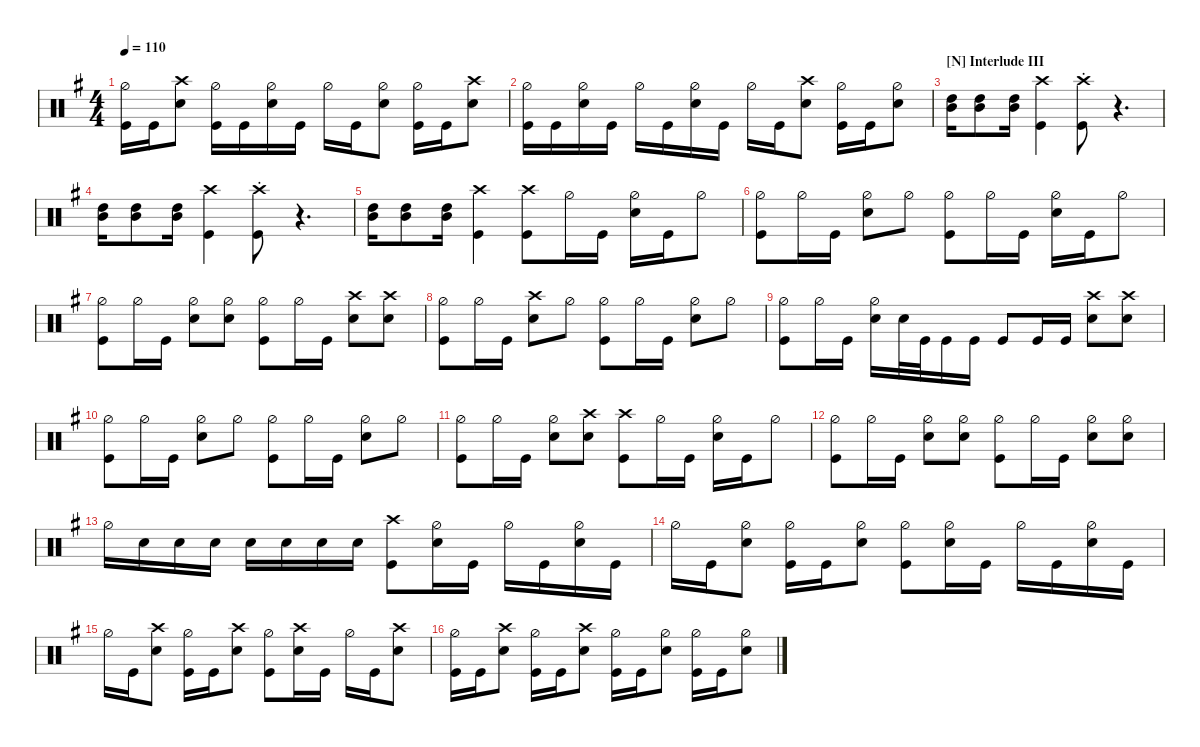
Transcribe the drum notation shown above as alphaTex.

\defaultSystemsLayout 4
\hideDynamics
\bracketExtendMode nobrackets
\track ("Drums" " ") {instrument percussion}
\staff
\articulation defaults
\ts (4 4)
\tempo 110
\clef neutral
\ks eminor
("Kick (hit)"{acc forcenatural} "Hi-Hat (half)"{acc forcenatural}).16{dy f} "Kick (hit)"{acc forcenatural}.16 ("Snare (hit) 2"{acc forcenatural} "Crash high (hit)"{acc forcenatural}).8 ("Hi-Hat (half)"{acc forcenatural} "Kick (hit)"{acc forcenatural}).16 "Kick (hit)"{acc forcenatural}.16 ("Hi-Hat (half)"{acc forcenatural} "Snare (hit) 2"{acc forcenatural}).16 "Kick (hit)"{acc forcenatural}.16 "Hi-Hat (half)"{acc forcenatural}.16 "Kick (hit)"{acc forcenatural}.16 ("Hi-Hat (half)"{acc forcenatural} "Snare (hit) 2"{acc forcenatural}).8 ("Kick (hit)"{acc forcenatural} "Hi-Hat (half)"{acc forcenatural}).16 "Kick (hit)"{acc forcenatural}.16 ("Snare (hit) 2"{acc forcenatural} "Crash high (hit)"{acc forcenatural}).8 |
("Hi-Hat (half)"{acc forcenatural} "Kick (hit)"{acc forcenatural}).16 "Kick (hit)"{acc forcenatural}.16 ("Hi-Hat (half)"{acc forcenatural} "Snare (hit) 2"{acc forcenatural}).16 "Kick (hit)"{acc forcenatural}.16 "Hi-Hat (half)"{acc forcenatural}.16 "Kick (hit)"{acc forcenatural}.16 ("Hi-Hat (half)"{acc forcenatural} "Snare (hit) 2"{acc forcenatural}).16 "Kick (hit)"{acc forcenatural}.16 "Hi-Hat (half)"{acc forcenatural}.16 "Kick (hit)"{acc forcenatural}.16 ("Snare (hit) 2"{acc forcenatural} "Crash high (hit)"{acc forcenatural}).8 ("Kick (hit)"{acc forcenatural} "Hi-Hat (half)"{acc forcenatural}).16 "Kick (hit)"{acc forcenatural}.16 ("Hi-Hat (half)"{acc forcenatural} "Snare (hit) 2"{acc forcenatural}).8 |
\section ("N" "Interlude III")
("High Tom (hit)"{acc forcenatural} "Mid Tom (hit)"{acc forcenatural}).16{dy ff} ("High Tom (hit)"{acc forcenatural} "Mid Tom (hit)"{acc forcenatural}).8 ("High Tom (hit)"{acc forcenatural} "Mid Tom (hit)"{acc forcenatural}).16 ("Kick (hit)"{acc forcenatural} "Crash high (hit)"{acc forcenatural}).4{dy f} ("Kick (hit)"{acc forcenatural} "Crash high (hit)"{st acc forcenatural}).8 r.4{d} |
("High Tom (hit)"{acc forcenatural} "Mid Tom (hit)"{acc forcenatural}).16{dy ff} ("High Tom (hit)"{acc forcenatural} "Mid Tom (hit)"{acc forcenatural}).8 ("High Tom (hit)"{acc forcenatural} "Mid Tom (hit)"{acc forcenatural}).16 ("Kick (hit)"{acc forcenatural} "Crash high (hit)"{acc forcenatural}).4{dy f} ("Kick (hit)"{acc forcenatural} "Crash high (hit)"{st acc forcenatural}).8 r.4{d} |
("High Tom (hit)"{acc forcenatural} "Mid Tom (hit)"{acc forcenatural}).16{dy ff} ("High Tom (hit)"{acc forcenatural} "Mid Tom (hit)"{acc forcenatural}).8 ("High Tom (hit)"{acc forcenatural} "Mid Tom (hit)"{acc forcenatural}).16 ("Kick (hit)"{acc forcenatural} "Crash high (hit)"{acc forcenatural}).4{dy f} ("Kick (hit)"{acc forcenatural} "Crash high (hit)"{acc forcenatural}).8 "Hi-Hat (half)"{acc forcenatural}.16 "Kick (hit)"{acc forcenatural}.16 ("Hi-Hat (half)"{acc forcenatural} "Snare (hit) 2"{acc forcenatural}).16 "Kick (hit)"{acc forcenatural}.16 "Hi-Hat (half)"{acc forcenatural}.8 |
("Hi-Hat (half)"{acc forcenatural} "Kick (hit)"{acc forcenatural}).8 "Hi-Hat (half)"{acc forcenatural}.16 "Kick (hit)"{acc forcenatural}.16 ("Hi-Hat (half)"{acc forcenatural} "Snare (hit) 2"{acc forcenatural}).8 "Hi-Hat (half)"{acc forcenatural}.8 ("Hi-Hat (half)"{acc forcenatural} "Kick (hit)"{acc forcenatural}).8 "Hi-Hat (half)"{acc forcenatural}.16 "Kick (hit)"{acc forcenatural}.16 ("Hi-Hat (half)"{acc forcenatural} "Snare (hit) 2"{acc forcenatural}).16 "Kick (hit)"{acc forcenatural}.16 "Hi-Hat (half)"{acc forcenatural}.8 |
("Hi-Hat (half)"{acc forcenatural} "Kick (hit)"{acc forcenatural}).8 "Hi-Hat (half)"{acc forcenatural}.16 "Kick (hit)"{acc forcenatural}.16 ("Hi-Hat (half)"{acc forcenatural} "Snare (hit) 2"{acc forcenatural}).8 ("Hi-Hat (half)"{acc forcenatural} "Snare (hit) 2"{acc forcenatural}).8 ("Hi-Hat (half)"{acc forcenatural} "Kick (hit)"{acc forcenatural}).8 "Hi-Hat (half)"{acc forcenatural}.16 "Kick (hit)"{acc forcenatural}.16 ("Snare (hit) 2"{acc forcenatural} "Crash high (hit)"{acc forcenatural}).8 ("Snare (hit) 2"{acc forcenatural} "Crash high (hit)"{acc forcenatural}).8 |
("Hi-Hat (half)"{acc forcenatural} "Kick (hit)"{acc forcenatural}).8 "Hi-Hat (half)"{acc forcenatural}.16 "Kick (hit)"{acc forcenatural}.16 ("Snare (hit) 2"{acc forcenatural} "Crash high (hit)"{acc forcenatural}).8 "Hi-Hat (half)"{acc forcenatural}.8 ("Hi-Hat (half)"{acc forcenatural} "Kick (hit)"{acc forcenatural}).8 "Hi-Hat (half)"{acc forcenatural}.16 "Kick (hit)"{acc forcenatural}.16 ("Snare (hit) 2"{acc forcenatural} "Hi-Hat (half)"{acc forcenatural}).8 "Hi-Hat (half)"{acc forcenatural}.8 |
("Hi-Hat (half)"{acc forcenatural} "Kick (hit)"{acc forcenatural}).8 "Hi-Hat (half)"{acc forcenatural}.16 "Kick (hit)"{acc forcenatural}.16 ("Snare (hit) 2"{acc forcenatural} "Hi-Hat (half)"{acc forcenatural}).16 "Snare (hit) 2"{acc forcenatural}.32 "Kick (hit)"{acc forcenatural}.32 "Kick (hit)"{acc forcenatural}.16 "Kick (hit)"{acc forcenatural}.16 "Kick (hit)"{acc forcenatural}.8 "Kick (hit)"{acc forcenatural}.16 "Kick (hit)"{acc forcenatural}.16 ("Snare (hit) 2"{acc forcenatural} "Crash high (hit)"{acc forcenatural}).8 ("Snare (hit) 2"{acc forcenatural} "Crash high (hit)"{acc forcenatural}).8 |
("Hi-Hat (half)"{acc forcenatural} "Kick (hit)"{acc forcenatural}).8 "Hi-Hat (half)"{acc forcenatural}.16 "Kick (hit)"{acc forcenatural}.16 ("Snare (hit) 2"{acc forcenatural} "Hi-Hat (half)"{acc forcenatural}).8 "Hi-Hat (half)"{acc forcenatural}.8 ("Hi-Hat (half)"{acc forcenatural} "Kick (hit)"{acc forcenatural}).8 "Hi-Hat (half)"{acc forcenatural}.16 "Kick (hit)"{acc forcenatural}.16 ("Snare (hit) 2"{acc forcenatural} "Hi-Hat (half)"{acc forcenatural}).8 "Hi-Hat (half)"{acc forcenatural}.8 |
("Hi-Hat (half)"{acc forcenatural} "Kick (hit)"{acc forcenatural}).8 "Hi-Hat (half)"{acc forcenatural}.16 "Kick (hit)"{acc forcenatural}.16 ("Snare (hit) 2"{acc forcenatural} "Hi-Hat (half)"{acc forcenatural}).8 ("Snare (hit) 2"{acc forcenatural} "Crash high (hit)"{acc forcenatural}).8 ("Kick (hit)"{acc forcenatural} "Crash high (hit)"{acc forcenatural}).8 "Hi-Hat (half)"{acc forcenatural}.16 "Kick (hit)"{acc forcenatural}.16 ("Snare (hit) 2"{acc forcenatural} "Hi-Hat (half)"{acc forcenatural}).16 "Kick (hit)"{acc forcenatural}.16 "Hi-Hat (half)"{acc forcenatural}.8 |
("Hi-Hat (half)"{acc forcenatural} "Kick (hit)"{acc forcenatural}).8 "Hi-Hat (half)"{acc forcenatural}.16 "Kick (hit)"{acc forcenatural}.16 ("Snare (hit) 2"{acc forcenatural} "Hi-Hat (half)"{acc forcenatural}).8 ("Snare (hit) 2"{acc forcenatural} "Hi-Hat (half)"{acc forcenatural}).8 ("Hi-Hat (half)"{acc forcenatural} "Kick (hit)"{acc forcenatural}).8 "Hi-Hat (half)"{acc forcenatural}.16 "Kick (hit)"{acc forcenatural}.16 ("Snare (hit) 2"{acc forcenatural} "Hi-Hat (half)"{acc forcenatural}).8 ("Snare (hit) 2"{acc forcenatural} "Hi-Hat (half)"{acc forcenatural}).8 |
"Hi-Hat (half)"{acc forcenatural}.16 "Snare (hit) 2"{acc forcenatural}.16 "Snare (hit) 2"{acc forcenatural}.16 "Snare (hit) 2"{acc forcenatural}.16 "Snare (hit) 2"{acc forcenatural}.16 "Snare (hit) 2"{acc forcenatural}.16 "Snare (hit) 2"{acc forcenatural}.16 "Snare (hit) 2"{acc forcenatural}.16 ("Kick (hit)"{acc forcenatural} "Crash high (hit)"{acc forcenatural}).8 ("Hi-Hat (half)"{acc forcenatural} "Snare (hit) 2"{acc forcenatural}).16 "Kick (hit)"{acc forcenatural}.16 "Hi-Hat (half)"{acc forcenatural}.16 "Kick (hit)"{acc forcenatural}.16 ("Hi-Hat (half)"{acc forcenatural} "Snare (hit) 2"{acc forcenatural}).16 "Kick (hit)"{acc forcenatural}.16 |
"Hi-Hat (half)"{acc forcenatural}.16 "Kick (hit)"{acc forcenatural}.16 ("Hi-Hat (half)"{acc forcenatural} "Snare (hit) 2"{acc forcenatural}).8 ("Hi-Hat (half)"{acc forcenatural} "Kick (hit)"{acc forcenatural}).16 "Kick (hit)"{acc forcenatural}.16 ("Hi-Hat (half)"{acc forcenatural} "Snare (hit) 2"{acc forcenatural}).8 ("Hi-Hat (half)"{acc forcenatural} "Kick (hit)"{acc forcenatural}).8 ("Hi-Hat (half)"{acc forcenatural} "Snare (hit) 2"{acc forcenatural}).16 "Kick (hit)"{acc forcenatural}.16 "Hi-Hat (half)"{acc forcenatural}.16 "Kick (hit)"{acc forcenatural}.16 ("Hi-Hat (half)"{acc forcenatural} "Snare (hit) 2"{acc forcenatural}).16 "Kick (hit)"{acc forcenatural}.16 |
"Hi-Hat (half)"{acc forcenatural}.16 "Kick (hit)"{acc forcenatural}.16 ("Snare (hit) 2"{acc forcenatural} "Crash high (hit)"{acc forcenatural}).8 ("Hi-Hat (half)"{acc forcenatural} "Kick (hit)"{acc forcenatural}).16 "Kick (hit)"{acc forcenatural}.16 ("Snare (hit) 2"{acc forcenatural} "Crash high (hit)"{acc forcenatural}).8 ("Hi-Hat (half)"{acc forcenatural} "Kick (hit)"{acc forcenatural}).8 ("Snare (hit) 2"{acc forcenatural} "Crash high (hit)"{acc forcenatural}).16 "Kick (hit)"{acc forcenatural}.16 "Hi-Hat (half)"{acc forcenatural}.16 "Kick (hit)"{acc forcenatural}.16 ("Snare (hit) 2"{acc forcenatural} "Crash high (hit)"{acc forcenatural}).8 |
("Hi-Hat (half)"{acc forcenatural} "Kick (hit)"{acc forcenatural}).16 "Kick (hit)"{acc forcenatural}.16 ("Snare (hit) 2"{acc forcenatural} "Crash high (hit)"{acc forcenatural}).8 ("Hi-Hat (half)"{acc forcenatural} "Kick (hit)"{acc forcenatural}).16 "Kick (hit)"{acc forcenatural}.16 ("Snare (hit) 2"{acc forcenatural} "Crash high (hit)"{acc forcenatural}).8 ("Hi-Hat (half)"{acc forcenatural} "Kick (hit)"{acc forcenatural}).16 "Kick (hit)"{acc forcenatural}.16 ("Snare (hit) 2"{acc forcenatural} "Hi-Hat (half)"{acc forcenatural}).8 ("Hi-Hat (half)"{acc forcenatural} "Kick (hit)"{acc forcenatural}).16 "Kick (hit)"{acc forcenatural}.16 ("Snare (hit) 2"{acc forcenatural} "Hi-Hat (half)"{acc forcenatural}).8
